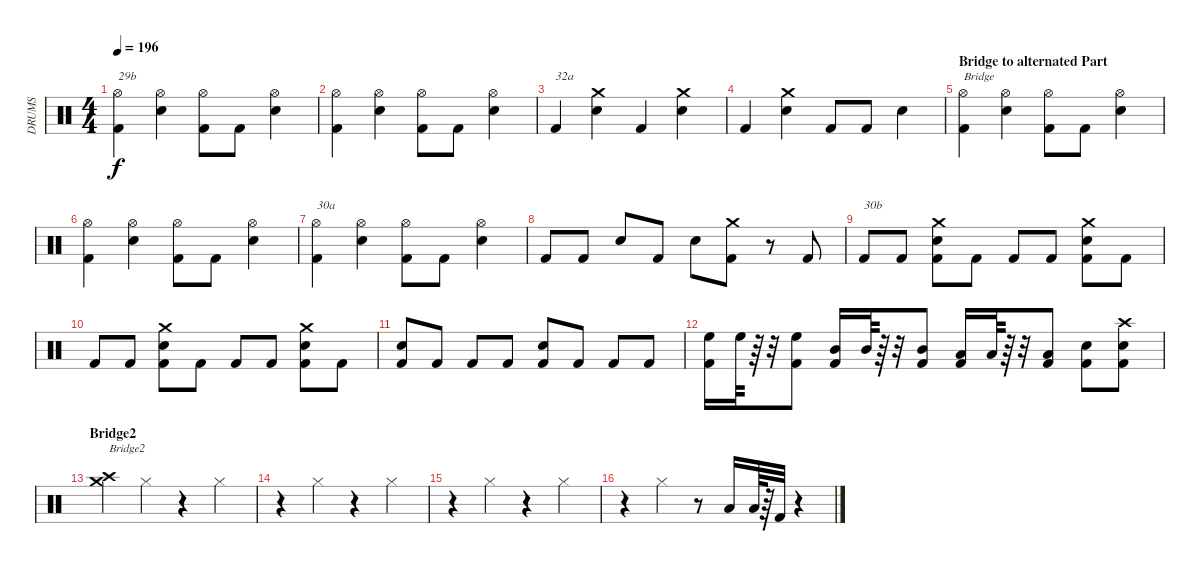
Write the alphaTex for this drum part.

\track ("DRUMS" "DRUMS") {instrument percussion}
\staff {score}
\articulation defaults
\ts (4 4)
\tempo 196
\clef neutral
\ks c
("Hi-Hat (open)" "Kick (hit) 2").4{txt "29b" dy f} ("Hi-Hat (open)" "Snare (hit) 2").4 ("Hi-Hat (open)" "Kick (hit) 2").8 "Kick (hit) 2".8 ("Hi-Hat (open)" "Snare (hit) 2").4 |
("Hi-Hat (open)" "Kick (hit) 2").4 ("Hi-Hat (open)" "Snare (hit) 2").4 ("Hi-Hat (open)" "Kick (hit) 2").8 "Kick (hit) 2".8 ("Hi-Hat (open)" "Snare (hit) 2").4 |
"Kick (hit) 2".4{txt "32a"} ("Crash medium (hit)" "Snare (hit) 2").4 "Kick (hit) 2".4 ("Crash medium (hit)" "Snare (hit) 2").4 |
"Kick (hit) 2".4 ("Crash medium (hit)" "Snare (hit) 2").4 "Kick (hit) 2".8 "Kick (hit) 2".8 "Snare (hit) 2".4 |
\section ("" "Bridge to alternated Part")
("Hi-Hat (open)" "Kick (hit) 2").4{txt "Bridge"} ("Hi-Hat (open)" "Snare (hit) 2").4 ("Hi-Hat (open)" "Kick (hit) 2").8 "Kick (hit) 2".8 ("Hi-Hat (open)" "Snare (hit) 2").4 |
("Hi-Hat (open)" "Kick (hit) 2").4 ("Hi-Hat (open)" "Snare (hit) 2").4 ("Hi-Hat (open)" "Kick (hit) 2").8 "Kick (hit) 2".8 ("Hi-Hat (open)" "Snare (hit) 2").4 |
("Hi-Hat (open)" "Kick (hit) 2").4{txt "30a"} ("Hi-Hat (open)" "Snare (hit) 2").4 ("Hi-Hat (open)" "Kick (hit) 2").8 "Kick (hit) 2".8 ("Hi-Hat (open)" "Snare (hit) 2").4 |
"Kick (hit) 2".8 "Kick (hit) 2".8 "Snare (hit) 2".8 "Kick (hit) 2".8 "Snare (hit) 2".8 ("Crash medium (hit)" "Kick (hit) 2").8 r.8 "Kick (hit) 2".8 |
"Kick (hit) 2".8{txt "30b"} "Kick (hit) 2".8 ("Crash medium (hit)" "Snare (hit) 2" "Kick (hit) 2").8 "Kick (hit) 2".8 "Kick (hit) 2".8 "Kick (hit) 2".8 ("Crash medium (hit)" "Snare (hit) 2" "Kick (hit) 2").8 "Kick (hit) 2".8 |
"Kick (hit) 2".8 "Kick (hit) 2".8 ("Crash medium (hit)" "Snare (hit) 2" "Kick (hit) 2").8 "Kick (hit) 2".8 "Kick (hit) 2".8 "Kick (hit) 2".8 ("Crash medium (hit)" "Snare (hit) 2" "Kick (hit) 2").8 "Kick (hit) 2".8 |
("Snare (hit) 2" "Kick (hit) 2").8 "Kick (hit) 2".8 "Kick (hit) 2".8 "Kick (hit) 2".8 ("Snare (hit) 2" "Kick (hit) 2").8 "Kick (hit) 2".8 "Kick (hit) 2".8 "Kick (hit) 2".8 |
("High Floor Tom (hit)" "Kick (hit) 2").16 "High Floor Tom (hit)".64 r.64 r.32 ("High Floor Tom (hit)" "Kick (hit) 2").8 ("Mid Tom (hit)" "Kick (hit) 2").16 "Mid Tom (hit)".64 r.64 r.32 ("Mid Tom (hit)" "Kick (hit) 2").8 ("Low Tom (hit)" "Kick (hit) 2").16 "Low Tom (hit)".64 r.64 r.32 ("Low Tom (hit)" "Kick (hit) 2").8 ("Snare (hit) 2" "Kick (hit) 2").8 ("Crash high (hit)" "Snare (hit) 2" "Kick (hit) 2").8 |
\section ("" "Bridge2")
("Crash medium (hit)" "Crash high (hit)").4{txt "Bridge2"} "Hi-Hat (closed)".4 r.4 "Hi-Hat (closed)".4 |
r.4 "Hi-Hat (closed)".4 r.4 "Hi-Hat (closed)".4 |
r.4 "Hi-Hat (closed)".4 r.4 "Hi-Hat (closed)".4 |
r.4 "Hi-Hat (closed)".4 r.8 "Low Floor Tom (hit)".16 "Low Floor Tom (hit)".64 r.64 "Kick (hit) 2".32 r.4
